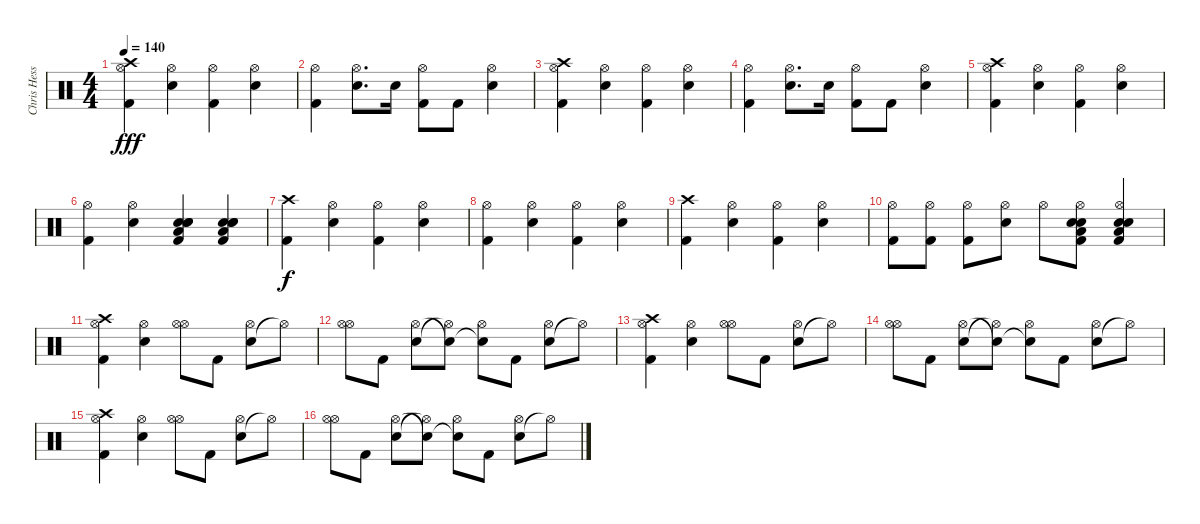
\track ("Chris Hesse" "Chris Hess") {instrument percussion}
\staff {score}
\articulation defaults
\ts (4 4)
\tempo 140
\clef neutral
\ks c
("Kick (hit) 2" "Hi-Hat (open)" "Crash high (hit)").4{dy fff} ("Electric Snare (hit)" "Hi-Hat (open)").4 ("Kick (hit) 2" "Hi-Hat (open)").4 ("Electric Snare (hit)" "Hi-Hat (open)").4 |
("Kick (hit) 2" "Hi-Hat (open)").4 ("Electric Snare (hit)" "Hi-Hat (open)").8{d} "Electric Snare (hit)".16 ("Kick (hit) 2" "Hi-Hat (open)").8 "Kick (hit) 2".8 ("Electric Snare (hit)" "Hi-Hat (open)").4 |
("Kick (hit) 2" "Hi-Hat (open)" "Crash high (hit)").4 ("Electric Snare (hit)" "Hi-Hat (open)").4 ("Kick (hit) 2" "Hi-Hat (open)").4 ("Electric Snare (hit)" "Hi-Hat (open)").4 |
("Kick (hit) 2" "Hi-Hat (open)").4 ("Electric Snare (hit)" "Hi-Hat (open)").8{d} "Electric Snare (hit)".16 ("Kick (hit) 2" "Hi-Hat (open)").8 "Kick (hit) 2".8 ("Electric Snare (hit)" "Hi-Hat (open)").4 |
("Kick (hit) 2" "Hi-Hat (open)" "Crash high (hit)").4 ("Electric Snare (hit)" "Hi-Hat (open)").4 ("Kick (hit) 2" "Hi-Hat (open)").4 ("Electric Snare (hit)" "Hi-Hat (open)").4 |
("Kick (hit) 2" "Hi-Hat (open)").4 ("Electric Snare (hit)" "Hi-Hat (open)").4 ("Low Floor Tom (hit)" "Electric Snare (hit)" "Electric Snare (hit)" "Electric Snare (hit)" "Kick (hit) 2").4 ("Low Floor Tom (hit)" "Electric Snare (hit)" "Electric Snare (hit)" "Electric Snare (hit)" "Kick (hit) 2").4 |
("Kick (hit) 2" "Crash high (hit)").4{dy f} ("Electric Snare (hit)" "Hi-Hat (open)").4 ("Kick (hit) 2" "Hi-Hat (open)").4 ("Electric Snare (hit)" "Hi-Hat (open)").4 |
("Kick (hit) 2" "Hi-Hat (open)").4 ("Electric Snare (hit)" "Hi-Hat (open)").4 ("Kick (hit) 2" "Hi-Hat (open)").4 ("Electric Snare (hit)" "Hi-Hat (open)").4 |
("Kick (hit) 2" "Crash high (hit)").4 ("Electric Snare (hit)" "Hi-Hat (open)").4 ("Kick (hit) 2" "Hi-Hat (open)").4 ("Electric Snare (hit)" "Hi-Hat (open)").4 |
("Kick (hit) 2" "Hi-Hat (open)").8 ("Kick (hit) 2" "Hi-Hat (open)").8 ("Kick (hit) 2" "Hi-Hat (open)").8 ("Electric Snare (hit)" "Hi-Hat (open)").8 "Hi-Hat (open)".8 ("Electric Snare (hit)" "Low Floor Tom (hit)" "Electric Snare (hit)" "Kick (hit) 2" "Hi-Hat (open)").8 ("Electric Snare (hit)" "Low Floor Tom (hit)" "Electric Snare (hit)" "Kick (hit) 2" "Hi-Hat (open)").4 |
("Kick (hit) 2" "Hi-Hat (open)" "Crash high (hit)").4 ("Electric Snare (hit)" "Hi-Hat (open)").4 ("Hi-Hat (open)" "Hi-Hat (open)").8 "Kick (hit) 2".8 ("Electric Snare (hit)" "Hi-Hat (open)").8 "Hi-Hat (open)"{t}.8 |
("Hi-Hat (open)" "Hi-Hat (open)").8 "Kick (hit) 2".8 ("Electric Snare (hit)" "Hi-Hat (open)").8 ("Hi-Hat (open)"{t} "Snare (hit)"{t}).8 ("Hi-Hat (open)" "Snare (hit)"{t}).8 "Kick (hit) 2".8 ("Electric Snare (hit)" "Hi-Hat (open)").8 "Hi-Hat (open)"{t}.8 |
("Kick (hit) 2" "Hi-Hat (open)" "Crash high (hit)").4 ("Electric Snare (hit)" "Hi-Hat (open)").4 ("Hi-Hat (open)" "Hi-Hat (open)").8 "Kick (hit) 2".8 ("Electric Snare (hit)" "Hi-Hat (open)").8 "Hi-Hat (open)"{t}.8 |
("Hi-Hat (open)" "Hi-Hat (open)").8 "Kick (hit) 2".8 ("Electric Snare (hit)" "Hi-Hat (open)").8 ("Hi-Hat (open)"{t} "Snare (hit)"{t}).8 ("Hi-Hat (open)" "Snare (hit)"{t}).8 "Kick (hit) 2".8 ("Electric Snare (hit)" "Hi-Hat (open)").8 "Hi-Hat (open)"{t}.8 |
("Kick (hit) 2" "Hi-Hat (open)" "Crash high (hit)").4 ("Electric Snare (hit)" "Hi-Hat (open)").4 ("Hi-Hat (open)" "Hi-Hat (open)").8 "Kick (hit) 2".8 ("Electric Snare (hit)" "Hi-Hat (open)").8 "Hi-Hat (open)"{t}.8 |
("Hi-Hat (open)" "Hi-Hat (open)").8 "Kick (hit) 2".8 ("Electric Snare (hit)" "Hi-Hat (open)").8 ("Hi-Hat (open)"{t} "Snare (hit)"{t}).8 ("Hi-Hat (open)" "Snare (hit)"{t}).8 "Kick (hit) 2".8 ("Electric Snare (hit)" "Hi-Hat (open)").8 "Hi-Hat (open)"{t}.8
